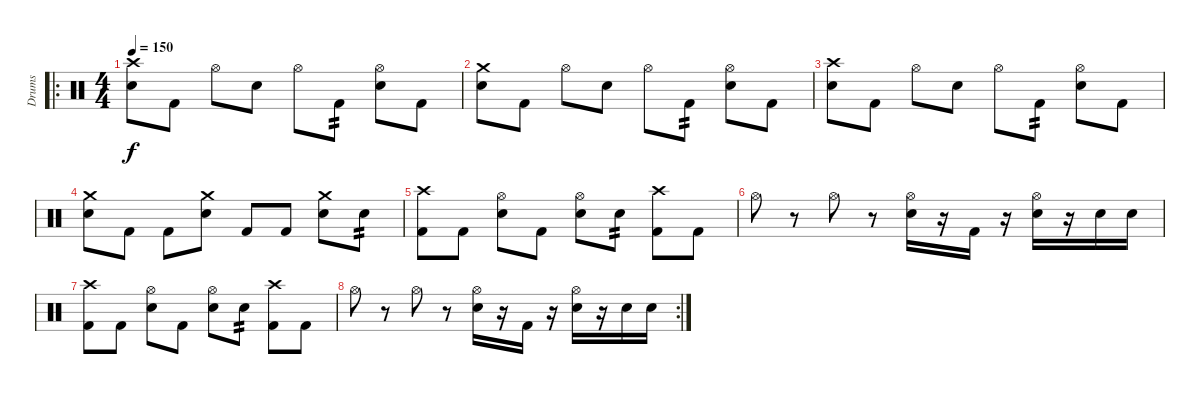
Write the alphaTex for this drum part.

\track ("Drums" "Drums") {instrument percussion}
\staff {score}
\articulation defaults
\ro
\ts (4 4)
\tempo 150
\clef neutral
\ks c
("Crash high (hit)" "Electric Snare (hit)").8{dy f} "Kick (hit) 2".8 "Hi-Hat (open)".8 "Electric Snare (hit)".8 "Hi-Hat (open)".8 "Kick (hit) 2".8{tp 2} ("Hi-Hat (open)" "Electric Snare (hit)").8 "Kick (hit) 2".8 |
("Crash medium (hit)" "Electric Snare (hit)").8 "Kick (hit) 2".8 "Hi-Hat (open)".8 "Electric Snare (hit)".8 "Hi-Hat (open)".8 "Kick (hit) 2".8{tp 2} ("Hi-Hat (open)" "Electric Snare (hit)").8 "Kick (hit) 2".8 |
("Crash high (hit)" "Electric Snare (hit)").8 "Kick (hit) 2".8 "Hi-Hat (open)".8 "Electric Snare (hit)".8 "Hi-Hat (open)".8 "Kick (hit) 2".8{tp 2} ("Hi-Hat (open)" "Electric Snare (hit)").8 "Kick (hit) 2".8 |
("Crash medium (hit)" "Electric Snare (hit)").8 "Kick (hit) 2".8 "Kick (hit) 2".8 ("Crash medium (hit)" "Electric Snare (hit)").8 "Kick (hit) 2".8 "Kick (hit) 2".8 ("Crash medium (hit)" "Electric Snare (hit)").8 "Electric Snare (hit)".8{tp 2} |
("Crash high (hit)" "Kick (hit) 2").8 "Kick (hit) 2".8 ("Hi-Hat (open)" "Electric Snare (hit)").8 "Kick (hit) 2".8 ("Hi-Hat (open)" "Electric Snare (hit)").8 "Electric Snare (hit)".8{tp 2} ("Crash high (hit)" "Kick (hit) 2").8 "Kick (hit) 2".8 |
"Hi-Hat (open)".8 r.8 "Hi-Hat (open)".8 r.8 ("Hi-Hat (open)" "Electric Snare (hit)").16 r.16 "Kick (hit) 2".16 r.16 ("Hi-Hat (open)" "Electric Snare (hit)").16 r.16 "Electric Snare (hit)".16 "Electric Snare (hit)".16 |
("Crash high (hit)" "Kick (hit) 2").8 "Kick (hit) 2".8 ("Hi-Hat (open)" "Electric Snare (hit)").8 "Kick (hit) 2".8 ("Hi-Hat (open)" "Electric Snare (hit)").8 "Electric Snare (hit)".8{tp 2} ("Crash high (hit)" "Kick (hit) 2").8 "Kick (hit) 2".8 |
\rc 2 "Hi-Hat (open)".8
r.8 "Hi-Hat (open)".8 r.8 ("Hi-Hat (open)" "Electric Snare (hit)").16 r.16 "Kick (hit) 2".16 r.16 ("Hi-Hat (open)" "Snare (hit) 2").16 r.16 "Electric Snare (hit)".16 "Electric Snare (hit)".16
